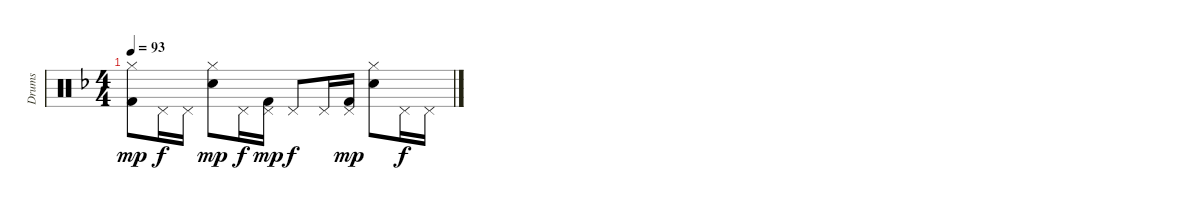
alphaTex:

\track ("Drums" "Drums") {instrument percussion}
\staff {score}
\articulation defaults
\ts (4 4)
\tempo 93
\clef neutral
\ks f
("Hi-Hat (closed)" "Kick (hit) 2").8{dy mp} "Pedal Hi-Hat (hit)".16{dy f} "Pedal Hi-Hat (hit)".16 ("Hi-Hat (closed)" "Electric Snare (hit)").8{dy mp} "Pedal Hi-Hat (hit)".16{dy f} ("Pedal Hi-Hat (hit)" "Kick (hit) 2").16{dy mp} "Pedal Hi-Hat (hit)".8{dy f} "Pedal Hi-Hat (hit)".16 ("Pedal Hi-Hat (hit)" "Kick (hit) 2").16{dy mp} ("Hi-Hat (closed)" "Electric Snare (hit)").8 "Pedal Hi-Hat (hit)".16{dy f} "Pedal Hi-Hat (hit)".16
